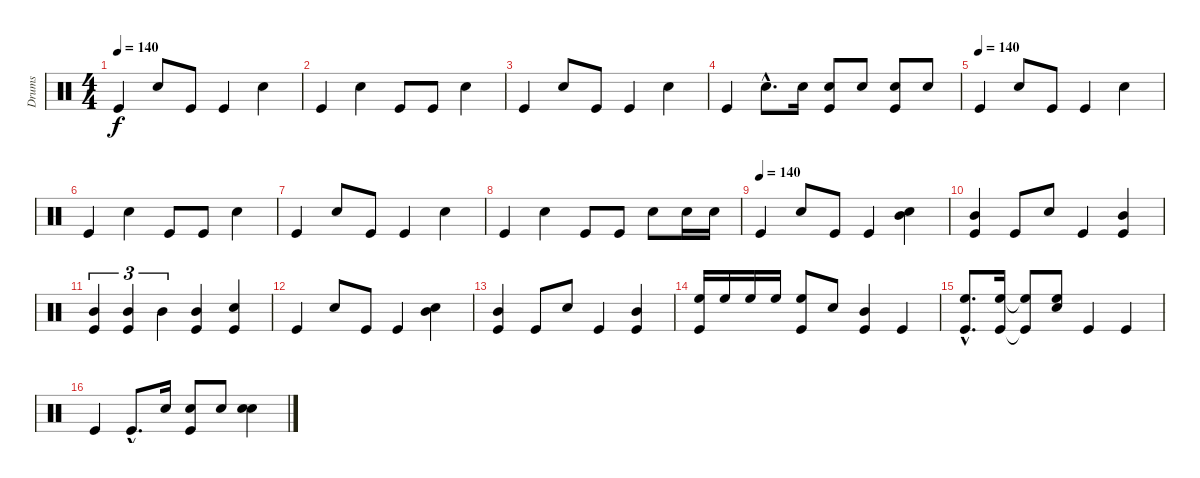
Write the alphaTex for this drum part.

\track ("Drums" "Drums") {instrument percussion}
\staff {score}
\articulation defaults
\ts (4 4)
\tempo 140
\clef neutral
\ks c "Kick (hit)".4{dy f} "Snare (hit) 2".8 "Kick (hit)".8 "Kick (hit)".4 "Snare (hit) 2".4
|
"Kick (hit)".4 "Snare (hit) 2".4 "Kick (hit)".8 "Kick (hit)".8 "Snare (hit) 2".4 |
"Kick (hit)".4 "Snare (hit) 2".8 "Kick (hit)".8 "Kick (hit)".4 "Snare (hit) 2".4 |
"Kick (hit)".4 "Snare (hit) 2"{hac}.8{d} "Snare (hit) 2".16 ("Snare (hit) 2" "Kick (hit)").8 "Snare (hit) 2".8 ("Snare (hit) 2" "Kick (hit)").8 "Snare (hit) 2".8 |
\tempo (140)
"Kick (hit)".4 "Snare (hit) 2".8 "Kick (hit)".8 "Kick (hit)".4 "Snare (hit) 2".4 |
"Kick (hit)".4 "Snare (hit) 2".4 "Kick (hit)".8 "Kick (hit)".8 "Snare (hit) 2".4 |
"Kick (hit)".4 "Snare (hit) 2".8 "Kick (hit)".8 "Kick (hit)".4 "Snare (hit) 2".4 |
"Kick (hit)".4 "Snare (hit) 2".4 "Kick (hit)".8 "Kick (hit)".8 "Snare (hit) 2".8 "Snare (hit) 2".16 "Snare (hit) 2".16 |
\tempo (140)
"Kick (hit)".4 "Snare (hit) 2".8 "Kick (hit)".8 "Kick (hit)".4 ("Snare (hit) 2" "Mid Tom (hit)").4 |
("Kick (hit)" "Mid Tom (hit)").4 "Kick (hit)".8 "Snare (hit) 2".8 "Kick (hit)".4 ("Kick (hit)" "Mid Tom (hit)").4 |
("Kick (hit)" "Mid Tom (hit)").4{tu (3 2)} ("Kick (hit)" "Mid Tom (hit)").4{tu (3 2)} "Mid Tom (hit)".4{tu (3 2)} ("Kick (hit)" "Mid Tom (hit)").4 ("Kick (hit)" "Snare (hit) 2").4 |
"Kick (hit)".4 "Snare (hit) 2".8 "Kick (hit)".8 "Kick (hit)".4 ("Snare (hit) 2" "Mid Tom (hit)").4 |
("Kick (hit)" "Mid Tom (hit)").4 "Kick (hit)".8 "Snare (hit) 2".8 "Kick (hit)".4 ("Kick (hit)" "Mid Tom (hit)").4 |
("Kick (hit)" "High Floor Tom (hit)").16 "High Floor Tom (hit)".16 "High Floor Tom (hit)".16 "High Floor Tom (hit)".16 ("Kick (hit)" "High Floor Tom (hit)").8 "Snare (hit) 2".8 ("Kick (hit)" "Mid Tom (hit)").4 "Kick (hit)".4 |
("Kick (hit)"{hac} "High Floor Tom (hit)"{hac}).8{d} ("Kick (hit)" "High Floor Tom (hit)").16 ("Kick (hit)"{t} "High Floor Tom (hit)"{t}).8 ("Snare (hit) 2" "High Floor Tom (hit)").8 "Kick (hit)".4 "Kick (hit)".4 |
"Kick (hit)".4 "Kick (hit)"{hac}.8{d} "Snare (hit) 2".16 ("Kick (hit)" "Snare (hit) 2").8 "Snare (hit) 2".8 ("Snare (hit) 2" "Snare (hit) 2").4
